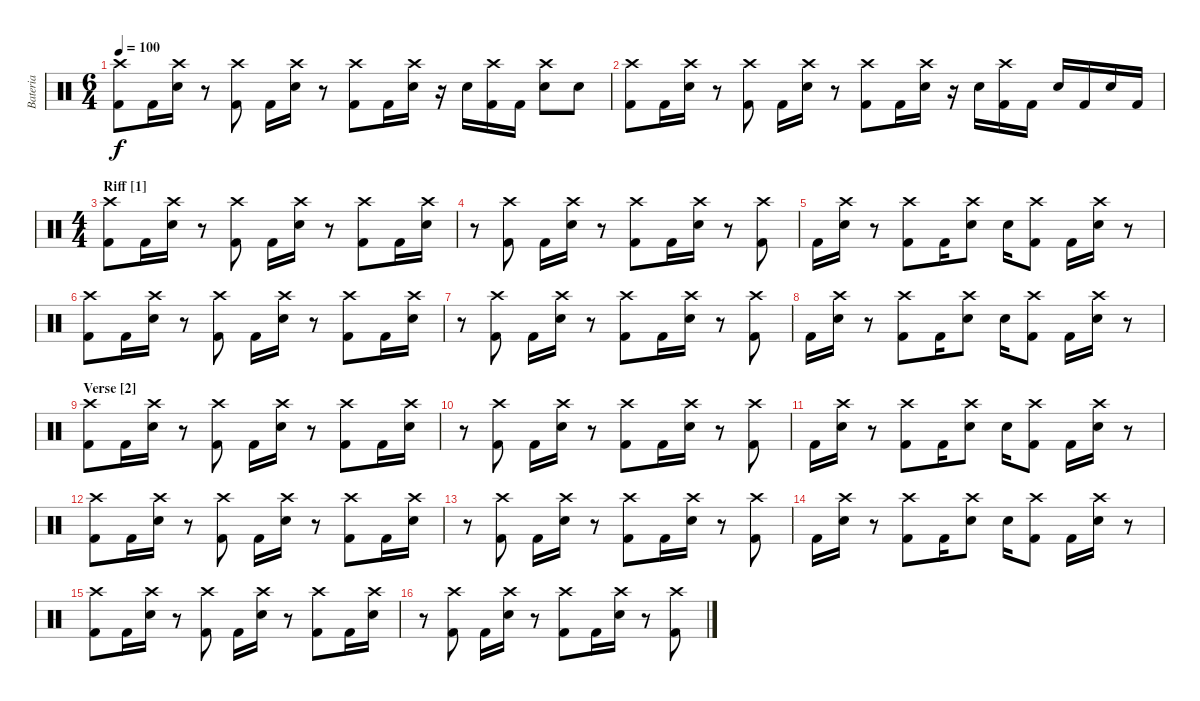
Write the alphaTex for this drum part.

\track ("Bateria" "Bateria") {instrument percussion}
\staff {score}
\articulation defaults
\ts (6 4)
\tempo 100
\clef neutral
\ks c
("Crash high (hit)" "Kick (hit) 2").8{dy f} "Kick (hit) 2".16 ("Crash high (hit)" "Electric Snare (hit)").16 r.8 ("Crash high (hit)" "Kick (hit) 2").8 "Kick (hit) 2".16 ("Crash high (hit)" "Electric Snare (hit)").16 r.8 ("Crash high (hit)" "Kick (hit) 2").8 "Kick (hit) 2".16 ("Crash high (hit)" "Electric Snare (hit)").16 r.16 "Electric Snare (hit)".16 ("Crash high (hit)" "Kick (hit) 2").16 "Kick (hit) 2".16 ("Crash high (hit)" "Electric Snare (hit)").8 "Electric Snare (hit)".8 |
("Crash high (hit)" "Kick (hit) 2").8 "Kick (hit) 2".16 ("Crash high (hit)" "Electric Snare (hit)").16 r.8 ("Crash high (hit)" "Kick (hit) 2").8 "Kick (hit) 2".16 ("Crash high (hit)" "Electric Snare (hit)").16 r.8 ("Crash high (hit)" "Kick (hit) 2").8 "Kick (hit) 2".16 ("Crash high (hit)" "Electric Snare (hit)").16 r.16 "Electric Snare (hit)".16 ("Crash high (hit)" "Kick (hit) 2").16 "Kick (hit) 2".16 "Electric Snare (hit)".16 "Kick (hit) 2".16 "Electric Snare (hit)".16 "Kick (hit) 2".16 |
\ts (4 4)
\section ("" "Riff [1]")
("Crash high (hit)" "Kick (hit) 2").8 "Kick (hit) 2".16 ("Crash high (hit)" "Electric Snare (hit)").16 r.8 ("Crash high (hit)" "Kick (hit) 2").8 "Kick (hit) 2".16 ("Crash high (hit)" "Electric Snare (hit)").16 r.8 ("Crash high (hit)" "Kick (hit) 2").8 "Kick (hit) 2".16 ("Crash high (hit)" "Electric Snare (hit)").16 |
r.8 ("Crash high (hit)" "Kick (hit) 2").8 "Kick (hit) 2".16 ("Crash high (hit)" "Electric Snare (hit)").16 r.8 ("Crash high (hit)" "Kick (hit) 2").8 "Kick (hit) 2".16 ("Crash high (hit)" "Electric Snare (hit)").16 r.8 ("Crash high (hit)" "Kick (hit) 2").8 |
"Kick (hit) 2".16 ("Crash high (hit)" "Electric Snare (hit)").16 r.8 ("Crash high (hit)" "Kick (hit) 2").8 "Kick (hit) 2".16 ("Crash high (hit)" "Electric Snare (hit)").8 "Electric Snare (hit)".16 ("Crash high (hit)" "Kick (hit) 2").8 "Kick (hit) 2".16 ("Crash high (hit)" "Electric Snare (hit)").16 r.8 |
("Crash high (hit)" "Kick (hit) 2").8 "Kick (hit) 2".16 ("Crash high (hit)" "Electric Snare (hit)").16 r.8 ("Crash high (hit)" "Kick (hit) 2").8 "Kick (hit) 2".16 ("Crash high (hit)" "Electric Snare (hit)").16 r.8 ("Crash high (hit)" "Kick (hit) 2").8 "Kick (hit) 2".16 ("Crash high (hit)" "Electric Snare (hit)").16 |
r.8 ("Crash high (hit)" "Kick (hit) 2").8 "Kick (hit) 2".16 ("Crash high (hit)" "Electric Snare (hit)").16 r.8 ("Crash high (hit)" "Kick (hit) 2").8 "Kick (hit) 2".16 ("Crash high (hit)" "Electric Snare (hit)").16 r.8 ("Crash high (hit)" "Kick (hit) 2").8 |
"Kick (hit) 2".16 ("Crash high (hit)" "Electric Snare (hit)").16 r.8 ("Crash high (hit)" "Kick (hit) 2").8 "Kick (hit) 2".16 ("Crash high (hit)" "Electric Snare (hit)").8 "Electric Snare (hit)".16 ("Crash high (hit)" "Kick (hit) 2").8 "Kick (hit) 2".16 ("Crash high (hit)" "Electric Snare (hit)").16 r.8 |
\section ("" "Verse [2]")
("Crash high (hit)" "Kick (hit) 2").8 "Kick (hit) 2".16 ("Crash high (hit)" "Electric Snare (hit)").16 r.8 ("Crash high (hit)" "Kick (hit) 2").8 "Kick (hit) 2".16 ("Crash high (hit)" "Electric Snare (hit)").16 r.8 ("Crash high (hit)" "Kick (hit) 2").8 "Kick (hit) 2".16 ("Crash high (hit)" "Electric Snare (hit)").16 |
r.8 ("Crash high (hit)" "Kick (hit) 2").8 "Kick (hit) 2".16 ("Crash high (hit)" "Electric Snare (hit)").16 r.8 ("Crash high (hit)" "Kick (hit) 2").8 "Kick (hit) 2".16 ("Crash high (hit)" "Electric Snare (hit)").16 r.8 ("Crash high (hit)" "Kick (hit) 2").8 |
"Kick (hit) 2".16 ("Crash high (hit)" "Electric Snare (hit)").16 r.8 ("Crash high (hit)" "Kick (hit) 2").8 "Kick (hit) 2".16 ("Crash high (hit)" "Electric Snare (hit)").8 "Electric Snare (hit)".16 ("Crash high (hit)" "Kick (hit) 2").8 "Kick (hit) 2".16 ("Crash high (hit)" "Electric Snare (hit)").16 r.8 |
("Crash high (hit)" "Kick (hit) 2").8 "Kick (hit) 2".16 ("Crash high (hit)" "Electric Snare (hit)").16 r.8 ("Crash high (hit)" "Kick (hit) 2").8 "Kick (hit) 2".16 ("Crash high (hit)" "Electric Snare (hit)").16 r.8 ("Crash high (hit)" "Kick (hit) 2").8 "Kick (hit) 2".16 ("Crash high (hit)" "Electric Snare (hit)").16 |
r.8 ("Crash high (hit)" "Kick (hit) 2").8 "Kick (hit) 2".16 ("Crash high (hit)" "Electric Snare (hit)").16 r.8 ("Crash high (hit)" "Kick (hit) 2").8 "Kick (hit) 2".16 ("Crash high (hit)" "Electric Snare (hit)").16 r.8 ("Crash high (hit)" "Kick (hit) 2").8 |
"Kick (hit) 2".16 ("Crash high (hit)" "Electric Snare (hit)").16 r.8 ("Crash high (hit)" "Kick (hit) 2").8 "Kick (hit) 2".16 ("Crash high (hit)" "Electric Snare (hit)").8 "Electric Snare (hit)".16 ("Crash high (hit)" "Kick (hit) 2").8 "Kick (hit) 2".16 ("Crash high (hit)" "Electric Snare (hit)").16 r.8 |
("Crash high (hit)" "Kick (hit) 2").8 "Kick (hit) 2".16 ("Crash high (hit)" "Electric Snare (hit)").16 r.8 ("Crash high (hit)" "Kick (hit) 2").8 "Kick (hit) 2".16 ("Crash high (hit)" "Electric Snare (hit)").16 r.8 ("Crash high (hit)" "Kick (hit) 2").8 "Kick (hit) 2".16 ("Crash high (hit)" "Electric Snare (hit)").16 |
r.8 ("Crash high (hit)" "Kick (hit) 2").8 "Kick (hit) 2".16 ("Crash high (hit)" "Electric Snare (hit)").16 r.8 ("Crash high (hit)" "Kick (hit) 2").8 "Kick (hit) 2".16 ("Crash high (hit)" "Electric Snare (hit)").16 r.8 ("Crash high (hit)" "Kick (hit) 2").8
